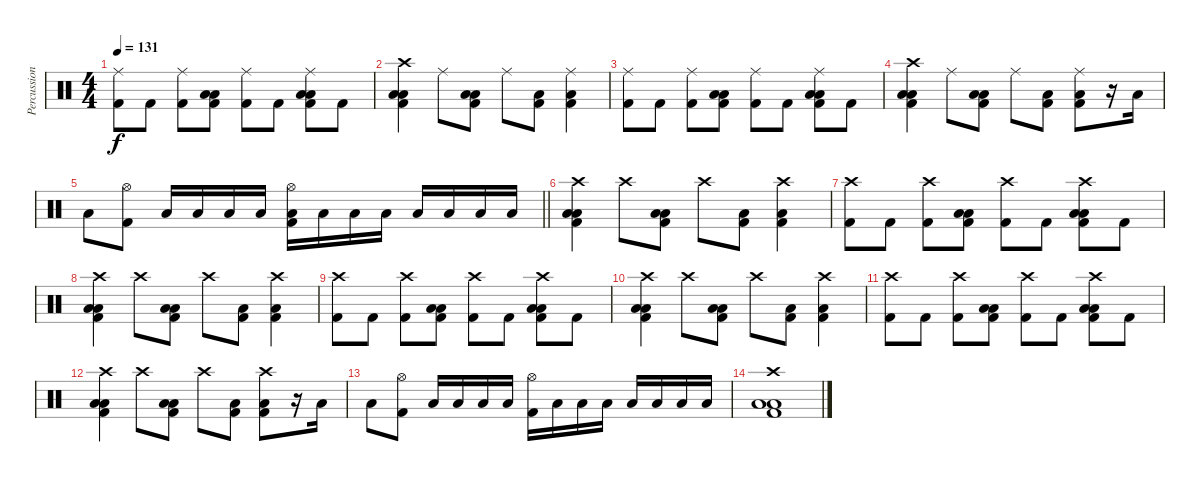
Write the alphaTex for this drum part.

\track ("Percussion" "Percussion") {instrument percussion}
\staff {score}
\articulation defaults
\ts (4 4)
\tempo 131
\clef neutral
\ks c
("Ride (middle)" "Kick (hit) 2").8{dy f} "Kick (hit) 2".8 ("Ride (middle)" "Kick (hit) 2").8 ("Low Tom (hit)" "Low Floor Tom (hit)" "Kick (hit) 2").8 ("Ride (middle)" "Kick (hit) 2").8 "Kick (hit) 2".8 ("Ride (middle)" "Low Tom (hit)" "Low Floor Tom (hit)" "Kick (hit) 2").8 "Kick (hit) 2".8 |
("Crash high (hit)" "Low Tom (hit)" "Low Floor Tom (hit)" "Kick (hit) 2").4 "Ride (middle)".8 ("Low Tom (hit)" "Low Floor Tom (hit)" "Kick (hit) 2").8 "Ride (middle)".8 ("Low Tom (hit)" "Kick (hit) 2").8 ("Ride (middle)" "Low Tom (hit)" "Kick (hit) 2").4 |
("Ride (middle)" "Kick (hit) 2").8 "Kick (hit) 2".8 ("Ride (middle)" "Kick (hit) 2").8 ("Low Tom (hit)" "Low Floor Tom (hit)" "Kick (hit) 2").8 ("Ride (middle)" "Kick (hit) 2").8 "Kick (hit) 2".8 ("Ride (middle)" "Low Tom (hit)" "Low Floor Tom (hit)" "Kick (hit) 2").8 "Kick (hit) 2".8 |
("Crash high (hit)" "Low Tom (hit)" "Low Floor Tom (hit)" "Kick (hit) 2").4 "Ride (middle)".8 ("Low Tom (hit)" "Low Floor Tom (hit)" "Kick (hit) 2").8 "Ride (middle)".8 ("Low Tom (hit)" "Kick (hit) 2").8 ("Ride (middle)" "Low Tom (hit)" "Kick (hit) 2").8 r.16 "Low Floor Tom (hit)".16 |
\barLineRight lightlight "Low Floor Tom (hit)".8
("Hi-Hat (open)" "Kick (hit) 2").8 "Low Tom (hit)".16 "Low Tom (hit)".16 "Low Tom (hit)".16 "Low Tom (hit)".16 ("Hi-Hat (open)" "Low Tom (hit)" "Kick (hit) 2").16 "Low Tom (hit)".16 "Low Tom (hit)".16 "Low Tom (hit)".16 "Low Tom (hit)".16 "Low Tom (hit)".16 "Low Tom (hit)".16 "Low Tom (hit)".16 |
("Crash high (hit)" "Low Tom (hit)" "Low Floor Tom (hit)" "Kick (hit) 2").4 "Crash high (hit)".8 ("Low Tom (hit)" "Low Floor Tom (hit)" "Kick (hit) 2").8 "Crash high (hit)".8 ("Low Tom (hit)" "Kick (hit) 2").8 ("Crash high (hit)" "Low Tom (hit)" "Kick (hit) 2").4 |
("Crash high (hit)" "Kick (hit) 2").8 "Kick (hit) 2".8 ("Crash high (hit)" "Kick (hit) 2").8 ("Low Tom (hit)" "Low Floor Tom (hit)" "Kick (hit) 2").8 ("Crash high (hit)" "Kick (hit) 2").8 "Kick (hit) 2".8 ("Crash high (hit)" "Low Tom (hit)" "Low Floor Tom (hit)" "Kick (hit) 2").8 "Kick (hit) 2".8 |
("Crash high (hit)" "Low Tom (hit)" "Low Floor Tom (hit)" "Kick (hit) 2").4 "Crash high (hit)".8 ("Low Tom (hit)" "Low Floor Tom (hit)" "Kick (hit) 2").8 "Crash high (hit)".8 ("Low Tom (hit)" "Kick (hit) 2").8 ("Crash high (hit)" "Low Tom (hit)" "Kick (hit) 2").4 |
("Crash high (hit)" "Kick (hit) 2").8 "Kick (hit) 2".8 ("Crash high (hit)" "Kick (hit) 2").8 ("Low Tom (hit)" "Low Floor Tom (hit)" "Kick (hit) 2").8 ("Crash high (hit)" "Kick (hit) 2").8 "Kick (hit) 2".8 ("Crash high (hit)" "Low Tom (hit)" "Low Floor Tom (hit)" "Kick (hit) 2").8 "Kick (hit) 2".8 |
("Crash high (hit)" "Low Tom (hit)" "Low Floor Tom (hit)" "Kick (hit) 2").4 "Crash high (hit)".8 ("Low Tom (hit)" "Low Floor Tom (hit)" "Kick (hit) 2").8 "Crash high (hit)".8 ("Low Tom (hit)" "Kick (hit) 2").8 ("Crash high (hit)" "Low Tom (hit)" "Kick (hit) 2").4 |
("Crash high (hit)" "Kick (hit) 2").8 "Kick (hit) 2".8 ("Crash high (hit)" "Kick (hit) 2").8 ("Low Tom (hit)" "Low Floor Tom (hit)" "Kick (hit) 2").8 ("Crash high (hit)" "Kick (hit) 2").8 "Kick (hit) 2".8 ("Crash high (hit)" "Low Tom (hit)" "Low Floor Tom (hit)" "Kick (hit) 2").8 "Kick (hit) 2".8 |
("Crash high (hit)" "Low Tom (hit)" "Low Floor Tom (hit)" "Kick (hit) 2").4 "Crash high (hit)".8 ("Low Tom (hit)" "Low Floor Tom (hit)" "Kick (hit) 2").8 "Crash high (hit)".8 ("Low Tom (hit)" "Kick (hit) 2").8 ("Crash high (hit)" "Low Tom (hit)" "Kick (hit) 2").8 r.16 "Low Tom (hit)".16 |
"Low Tom (hit)".8 ("Hi-Hat (open)" "Kick (hit) 2").8 "Low Tom (hit)".16 "Low Tom (hit)".16 "Low Tom (hit)".16 "Low Tom (hit)".16 ("Hi-Hat (open)" "Kick (hit) 2").16 "Low Tom (hit)".16 "Low Tom (hit)".16 "Low Tom (hit)".16 "Low Tom (hit)".16 "Low Tom (hit)".16 "Low Tom (hit)".16 "Low Tom (hit)".16 |
("Crash high (hit)" "Low Tom (hit)" "Low Floor Tom (hit)" "Kick (hit) 2").1
